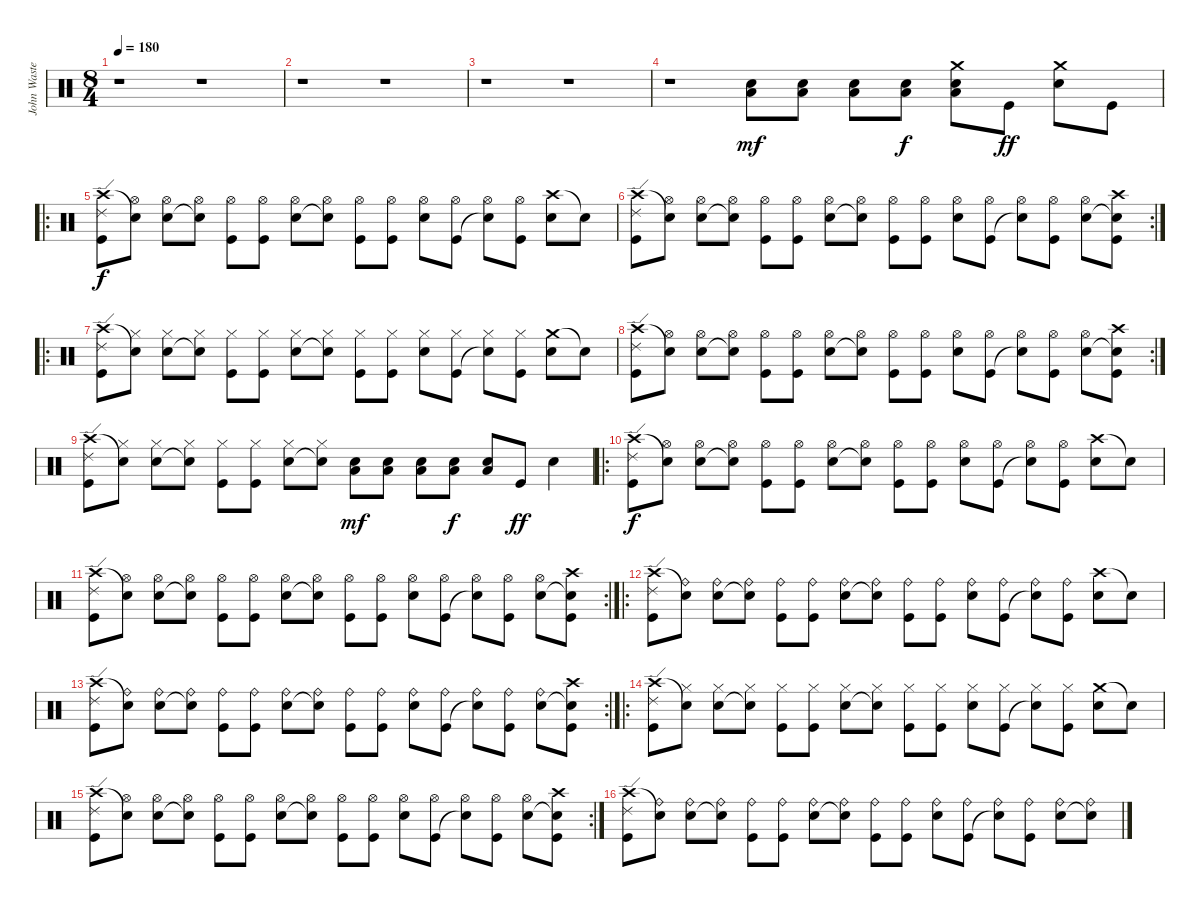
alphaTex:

\track ("John Wasted" "John Waste") {instrument percussion}
\staff {score}
\articulation defaults
\ts (8 4)
\tempo 180
\clef neutral
\ks c
r.1{dy mf} r.1 |
r.1 r.1 |
r.1 r.1 |
r.1 ("Snare (hit) 2" "Low Tom (hit)").8 ("Snare (hit) 2" "Low Tom (hit)").8 ("Snare (hit) 2" "Low Tom (hit)").8 ("Snare (hit) 2" "Low Tom (hit)").8{dy f} ("Crash medium (hit)" "Snare (hit) 2" "Low Tom (hit)").8 "Kick (hit)".8{dy ff} ("Crash medium (hit)" "Snare (hit) 2").8 "Kick (hit)".8 |
\ro
("Ride (edge) 2" "Crash high (hit)" "Kick (hit)").8{dy f} ("Hi-Hat (open)" "Snare (hit)"{t}).8 ("Hi-Hat (open)" "Snare (hit) 2").8 ("Hi-Hat (open)" "Snare (hit)"{t}).8 ("Hi-Hat (open)" "Kick (hit)").8 ("Hi-Hat (open)" "Kick (hit)").8 ("Hi-Hat (open)" "Snare (hit) 2").8 ("Hi-Hat (open)" "Snare (hit)"{t}).8 ("Hi-Hat (open)" "Kick (hit)").8 ("Hi-Hat (open)" "Kick (hit)").8 ("Hi-Hat (open)" "Snare (hit) 2").8 ("Hi-Hat (open)" "Kick (hit)").8 ("Hi-Hat (open)" "Snare (hit)"{t}).8 ("Hi-Hat (open)" "Kick (hit)").8 ("Crash high (hit)" "Snare (hit) 2").8 "Snare (hit)"{t}.8 |
\rc 2
("Ride (edge) 2" "Crash high (hit)" "Kick (hit)").8 ("Hi-Hat (open)" "Snare (hit)"{t}).8 ("Hi-Hat (open)" "Snare (hit) 2").8 ("Hi-Hat (open)" "Snare (hit)"{t}).8 ("Hi-Hat (open)" "Kick (hit)").8 ("Hi-Hat (open)" "Kick (hit)").8 ("Hi-Hat (open)" "Snare (hit) 2").8 ("Hi-Hat (open)" "Snare (hit)"{t}).8 ("Hi-Hat (open)" "Kick (hit)").8 ("Hi-Hat (open)" "Kick (hit)").8 ("Hi-Hat (open)" "Snare (hit) 2").8 ("Hi-Hat (open)" "Kick (hit)").8 ("Hi-Hat (open)" "Snare (hit)"{t}).8 ("Hi-Hat (open)" "Kick (hit)").8 ("Hi-Hat (open)" "Snare (hit) 2").8 ("Crash high (hit)" "Snare (hit)"{t} "Kick (hit)").8 |
\ro
("Ride (edge) 2" "Crash high (hit)" "Kick (hit)").8 ("Hi-Hat (closed)" "Snare (hit)"{t}).8 ("Hi-Hat (closed)" "Snare (hit) 2").8 ("Hi-Hat (closed)" "Snare (hit)"{t}).8 ("Hi-Hat (closed)" "Kick (hit)").8 ("Hi-Hat (closed)" "Kick (hit)").8 ("Hi-Hat (closed)" "Snare (hit) 2").8 ("Hi-Hat (closed)" "Snare (hit)"{t}).8 ("Hi-Hat (closed)" "Kick (hit)").8 ("Hi-Hat (closed)" "Kick (hit)").8 ("Hi-Hat (closed)" "Snare (hit) 2").8 ("Hi-Hat (closed)" "Kick (hit)").8 ("Hi-Hat (closed)" "Snare (hit)"{t}).8 ("Hi-Hat (closed)" "Kick (hit)").8 ("Crash medium (hit)" "Snare (hit) 2").8 "Snare (hit)"{t}.8 |
\rc 2
("Ride (edge) 2" "Crash high (hit)" "Kick (hit)").8 ("Hi-Hat (open)" "Snare (hit)"{t}).8 ("Hi-Hat (open)" "Snare (hit) 2").8 ("Hi-Hat (open)" "Snare (hit)"{t}).8 ("Hi-Hat (open)" "Kick (hit)").8 ("Hi-Hat (open)" "Kick (hit)").8 ("Hi-Hat (open)" "Snare (hit) 2").8 ("Hi-Hat (open)" "Snare (hit)"{t}).8 ("Hi-Hat (open)" "Kick (hit)").8 ("Hi-Hat (open)" "Kick (hit)").8 ("Hi-Hat (open)" "Snare (hit) 2").8 ("Hi-Hat (open)" "Kick (hit)").8 ("Hi-Hat (open)" "Snare (hit)"{t}).8 ("Hi-Hat (open)" "Kick (hit)").8 ("Hi-Hat (open)" "Snare (hit) 2").8 ("Crash high (hit)" "Snare (hit)"{t} "Kick (hit)").8 |
("Ride (edge) 2" "Crash high (hit)" "Kick (hit)").8 ("Hi-Hat (closed)" "Snare (hit)"{t}).8 ("Hi-Hat (closed)" "Snare (hit) 2").8 ("Hi-Hat (closed)" "Snare (hit)"{t}).8 ("Hi-Hat (closed)" "Kick (hit)").8 ("Hi-Hat (closed)" "Kick (hit)").8 ("Hi-Hat (closed)" "Snare (hit) 2").8 ("Hi-Hat (closed)" "Snare (hit)"{t}).8 ("Snare (hit) 2" "Low Tom (hit)").8{dy mf} ("Snare (hit) 2" "Low Tom (hit)").8 ("Snare (hit) 2" "Low Tom (hit)").8 ("Snare (hit) 2" "Low Tom (hit)").8{dy f} ("Snare (hit) 2" "Low Tom (hit)").8 "Kick (hit)".8{dy ff} "Snare (hit) 2".4 |
\ro
("Ride (edge) 2" "Crash high (hit)" "Kick (hit)").8{dy f} ("Hi-Hat (open)" "Snare (hit)"{t}).8 ("Hi-Hat (open)" "Snare (hit) 2").8 ("Hi-Hat (open)" "Snare (hit)"{t}).8 ("Hi-Hat (open)" "Kick (hit)").8 ("Hi-Hat (open)" "Kick (hit)").8 ("Hi-Hat (open)" "Snare (hit) 2").8 ("Hi-Hat (open)" "Snare (hit)"{t}).8 ("Hi-Hat (open)" "Kick (hit)").8 ("Hi-Hat (open)" "Kick (hit)").8 ("Hi-Hat (open)" "Snare (hit) 2").8 ("Hi-Hat (open)" "Kick (hit)").8 ("Hi-Hat (open)" "Snare (hit)"{t}).8 ("Hi-Hat (open)" "Kick (hit)").8 ("Crash high (hit)" "Snare (hit) 2").8 "Snare (hit)"{t}.8 |
\rc 2
("Ride (edge) 2" "Crash high (hit)" "Kick (hit)").8 ("Hi-Hat (open)" "Snare (hit)"{t}).8 ("Hi-Hat (open)" "Snare (hit) 2").8 ("Hi-Hat (open)" "Snare (hit)"{t}).8 ("Hi-Hat (open)" "Kick (hit)").8 ("Hi-Hat (open)" "Kick (hit)").8 ("Hi-Hat (open)" "Snare (hit) 2").8 ("Hi-Hat (open)" "Snare (hit)"{t}).8 ("Hi-Hat (open)" "Kick (hit)").8 ("Hi-Hat (open)" "Kick (hit)").8 ("Hi-Hat (open)" "Snare (hit) 2").8 ("Hi-Hat (open)" "Kick (hit)").8 ("Hi-Hat (open)" "Snare (hit)"{t}).8 ("Hi-Hat (open)" "Kick (hit)").8 ("Hi-Hat (open)" "Snare (hit) 2").8 ("Crash high (hit)" "Snare (hit)"{t} "Kick (hit)").8 |
\ro
("Ride (edge) 2" "Crash high (hit)" "Kick (hit)").8 ("Ride (bell)" "Snare (hit)"{t}).8 ("Ride (bell)" "Snare (hit) 2").8 ("Ride (bell)" "Snare (hit)"{t}).8 ("Ride (bell)" "Kick (hit)").8 ("Ride (bell)" "Kick (hit)").8 ("Ride (bell)" "Snare (hit) 2").8 ("Ride (bell)" "Snare (hit)"{t}).8 ("Ride (bell)" "Kick (hit)").8 ("Ride (bell)" "Kick (hit)").8 ("Ride (bell)" "Snare (hit) 2").8 ("Ride (bell)" "Kick (hit)").8 ("Ride (bell)" "Snare (hit)"{t}).8 ("Ride (bell)" "Kick (hit)").8 ("Crash high (hit)" "Snare (hit) 2").8 "Snare (hit)"{t}.8 |
\rc 2
("Ride (edge) 2" "Crash high (hit)" "Kick (hit)").8 ("Ride (bell)" "Snare (hit)"{t}).8 ("Ride (bell)" "Snare (hit) 2").8 ("Ride (bell)" "Snare (hit)"{t}).8 ("Ride (bell)" "Kick (hit)").8 ("Ride (bell)" "Kick (hit)").8 ("Ride (bell)" "Snare (hit) 2").8 ("Ride (bell)" "Snare (hit)"{t}).8 ("Ride (bell)" "Kick (hit)").8 ("Ride (bell)" "Kick (hit)").8 ("Ride (bell)" "Snare (hit) 2").8 ("Ride (bell)" "Kick (hit)").8 ("Ride (bell)" "Snare (hit)"{t}).8 ("Ride (bell)" "Kick (hit)").8 ("Ride (bell)" "Snare (hit) 2").8 ("Crash high (hit)" "Snare (hit)"{t} "Kick (hit)").8 |
\ro
("Ride (edge) 2" "Crash high (hit)" "Kick (hit)").8 ("Hi-Hat (closed)" "Snare (hit)"{t}).8 ("Hi-Hat (closed)" "Snare (hit) 2").8 ("Hi-Hat (closed)" "Snare (hit)"{t}).8 ("Hi-Hat (closed)" "Kick (hit)").8 ("Hi-Hat (closed)" "Kick (hit)").8 ("Hi-Hat (closed)" "Snare (hit) 2").8 ("Hi-Hat (closed)" "Snare (hit)"{t}).8 ("Hi-Hat (closed)" "Kick (hit)").8 ("Hi-Hat (closed)" "Kick (hit)").8 ("Hi-Hat (closed)" "Snare (hit) 2").8 ("Hi-Hat (closed)" "Kick (hit)").8 ("Hi-Hat (closed)" "Snare (hit)"{t}).8 ("Hi-Hat (closed)" "Kick (hit)").8 ("Crash medium (hit)" "Snare (hit) 2").8 "Snare (hit)"{t}.8 |
\rc 2
("Ride (edge) 2" "Crash high (hit)" "Kick (hit)").8 ("Hi-Hat (open)" "Snare (hit)"{t}).8 ("Hi-Hat (open)" "Snare (hit) 2").8 ("Hi-Hat (open)" "Snare (hit)"{t}).8 ("Hi-Hat (open)" "Kick (hit)").8 ("Hi-Hat (open)" "Kick (hit)").8 ("Hi-Hat (open)" "Snare (hit) 2").8 ("Hi-Hat (open)" "Snare (hit)"{t}).8 ("Hi-Hat (open)" "Kick (hit)").8 ("Hi-Hat (open)" "Kick (hit)").8 ("Hi-Hat (open)" "Snare (hit) 2").8 ("Hi-Hat (open)" "Kick (hit)").8 ("Hi-Hat (open)" "Snare (hit)"{t}).8 ("Hi-Hat (open)" "Kick (hit)").8 ("Hi-Hat (open)" "Snare (hit) 2").8 ("Crash high (hit)" "Snare (hit)"{t} "Kick (hit)").8 |
("Ride (edge) 2" "Crash high (hit)" "Kick (hit)").8 ("Ride (bell)" "Snare (hit)"{t}).8 ("Ride (bell)" "Snare (hit) 2").8 ("Ride (bell)" "Snare (hit)"{t}).8 ("Ride (bell)" "Kick (hit)").8 ("Ride (bell)" "Kick (hit)").8 ("Ride (bell)" "Snare (hit) 2").8 ("Ride (bell)" "Snare (hit)"{t}).8 ("Ride (bell)" "Kick (hit)").8 ("Ride (bell)" "Kick (hit)").8 ("Ride (bell)" "Snare (hit) 2").8 ("Ride (bell)" "Kick (hit)").8 ("Ride (bell)" "Snare (hit)"{t}).8 ("Ride (bell)" "Kick (hit)").8 ("Ride (bell)" "Snare (hit) 2").8 ("Ride (bell)" "Snare (hit)"{t}).8
